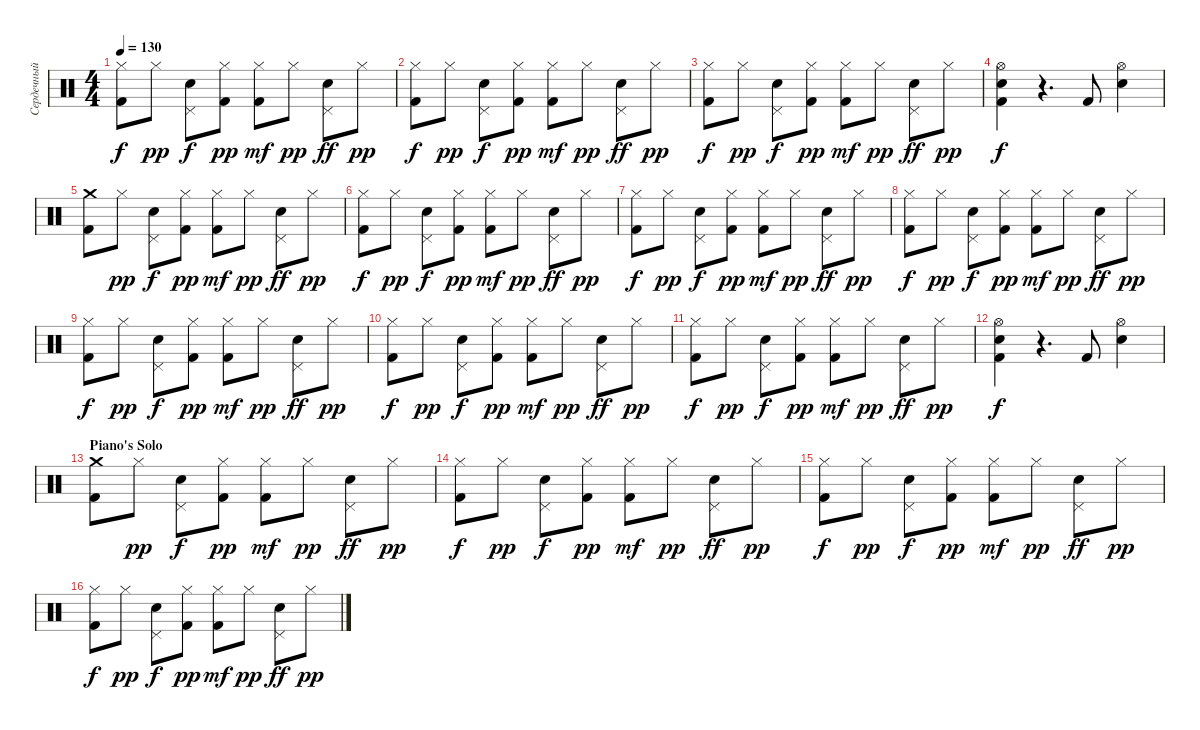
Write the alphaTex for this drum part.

\track ("Сердечный (Ударные)" "Сердечный ") {instrument percussion}
\staff {score}
\articulation defaults
\ts (4 4)
\tempo 130
\clef neutral
\ks c
("Hi-Hat (closed)" "Kick (hit) 2").8{dy f} "Hi-Hat (closed)".8{dy pp} ("Pedal Hi-Hat (hit)" "Electric Snare (hit)").8{dy f} ("Hi-Hat (closed)" "Kick (hit) 2").8{dy pp} ("Hi-Hat (closed)" "Kick (hit) 2").8{dy mf} "Hi-Hat (closed)".8{dy pp} ("Pedal Hi-Hat (hit)" "Electric Snare (hit)").8{dy ff} "Hi-Hat (closed)".8{dy pp} |
("Hi-Hat (closed)" "Kick (hit) 2").8{dy f} "Hi-Hat (closed)".8{dy pp} ("Pedal Hi-Hat (hit)" "Electric Snare (hit)").8{dy f} ("Hi-Hat (closed)" "Kick (hit) 2").8{dy pp} ("Hi-Hat (closed)" "Kick (hit) 2").8{dy mf} "Hi-Hat (closed)".8{dy pp} ("Pedal Hi-Hat (hit)" "Electric Snare (hit)").8{dy ff} "Hi-Hat (closed)".8{dy pp} |
("Hi-Hat (closed)" "Kick (hit) 2").8{dy f} "Hi-Hat (closed)".8{dy pp} ("Pedal Hi-Hat (hit)" "Electric Snare (hit)").8{dy f} ("Hi-Hat (closed)" "Kick (hit) 2").8{dy pp} ("Hi-Hat (closed)" "Kick (hit) 2").8{dy mf} "Hi-Hat (closed)".8{dy pp} ("Pedal Hi-Hat (hit)" "Electric Snare (hit)").8{dy ff} "Hi-Hat (closed)".8{dy pp} |
("Kick (hit) 2" "Electric Snare (hit)" "Hi-Hat (open)").4{dy f} r.4{d} "Kick (hit) 2".8 ("Hi-Hat (open)" "Electric Snare (hit)").4 |
("Kick (hit) 2" "Crash medium (hit)").8 "Hi-Hat (closed)".8{dy pp} ("Pedal Hi-Hat (hit)" "Electric Snare (hit)").8{dy f} ("Hi-Hat (closed)" "Kick (hit) 2").8{dy pp} ("Hi-Hat (closed)" "Kick (hit) 2").8{dy mf} "Hi-Hat (closed)".8{dy pp} ("Pedal Hi-Hat (hit)" "Electric Snare (hit)").8{dy ff} "Hi-Hat (closed)".8{dy pp} |
("Hi-Hat (closed)" "Kick (hit) 2").8{dy f} "Hi-Hat (closed)".8{dy pp} ("Pedal Hi-Hat (hit)" "Electric Snare (hit)").8{dy f} ("Hi-Hat (closed)" "Kick (hit) 2").8{dy pp} ("Hi-Hat (closed)" "Kick (hit) 2").8{dy mf} "Hi-Hat (closed)".8{dy pp} ("Pedal Hi-Hat (hit)" "Electric Snare (hit)").8{dy ff} "Hi-Hat (closed)".8{dy pp} |
("Hi-Hat (closed)" "Kick (hit) 2").8{dy f} "Hi-Hat (closed)".8{dy pp} ("Pedal Hi-Hat (hit)" "Electric Snare (hit)").8{dy f} ("Hi-Hat (closed)" "Kick (hit) 2").8{dy pp} ("Hi-Hat (closed)" "Kick (hit) 2").8{dy mf} "Hi-Hat (closed)".8{dy pp} ("Pedal Hi-Hat (hit)" "Electric Snare (hit)").8{dy ff} "Hi-Hat (closed)".8{dy pp} |
("Hi-Hat (closed)" "Kick (hit) 2").8{dy f} "Hi-Hat (closed)".8{dy pp} ("Pedal Hi-Hat (hit)" "Electric Snare (hit)").8{dy f} ("Hi-Hat (closed)" "Kick (hit) 2").8{dy pp} ("Hi-Hat (closed)" "Kick (hit) 2").8{dy mf} "Hi-Hat (closed)".8{dy pp} ("Pedal Hi-Hat (hit)" "Electric Snare (hit)").8{dy ff} "Hi-Hat (closed)".8{dy pp} |
("Hi-Hat (closed)" "Kick (hit) 2").8{dy f} "Hi-Hat (closed)".8{dy pp} ("Pedal Hi-Hat (hit)" "Electric Snare (hit)").8{dy f} ("Hi-Hat (closed)" "Kick (hit) 2").8{dy pp} ("Hi-Hat (closed)" "Kick (hit) 2").8{dy mf} "Hi-Hat (closed)".8{dy pp} ("Pedal Hi-Hat (hit)" "Electric Snare (hit)").8{dy ff} "Hi-Hat (closed)".8{dy pp} |
("Hi-Hat (closed)" "Kick (hit) 2").8{dy f} "Hi-Hat (closed)".8{dy pp} ("Pedal Hi-Hat (hit)" "Electric Snare (hit)").8{dy f} ("Hi-Hat (closed)" "Kick (hit) 2").8{dy pp} ("Hi-Hat (closed)" "Kick (hit) 2").8{dy mf} "Hi-Hat (closed)".8{dy pp} ("Pedal Hi-Hat (hit)" "Electric Snare (hit)").8{dy ff} "Hi-Hat (closed)".8{dy pp} |
("Hi-Hat (closed)" "Kick (hit) 2").8{dy f} "Hi-Hat (closed)".8{dy pp} ("Pedal Hi-Hat (hit)" "Electric Snare (hit)").8{dy f} ("Hi-Hat (closed)" "Kick (hit) 2").8{dy pp} ("Hi-Hat (closed)" "Kick (hit) 2").8{dy mf} "Hi-Hat (closed)".8{dy pp} ("Pedal Hi-Hat (hit)" "Electric Snare (hit)").8{dy ff} "Hi-Hat (closed)".8{dy pp} |
("Kick (hit) 2" "Electric Snare (hit)" "Hi-Hat (open)").4{dy f} r.4{d} "Kick (hit) 2".8 ("Hi-Hat (open)" "Electric Snare (hit)").4 |
\section ("" "Piano's Solo")
("Kick (hit) 2" "Crash medium (hit)").8 "Hi-Hat (closed)".8{dy pp} ("Pedal Hi-Hat (hit)" "Electric Snare (hit)").8{dy f} ("Hi-Hat (closed)" "Kick (hit) 2").8{dy pp} ("Hi-Hat (closed)" "Kick (hit) 2").8{dy mf} "Hi-Hat (closed)".8{dy pp} ("Pedal Hi-Hat (hit)" "Electric Snare (hit)").8{dy ff} "Hi-Hat (closed)".8{dy pp} |
("Hi-Hat (closed)" "Kick (hit) 2").8{dy f} "Hi-Hat (closed)".8{dy pp} ("Pedal Hi-Hat (hit)" "Electric Snare (hit)").8{dy f} ("Hi-Hat (closed)" "Kick (hit) 2").8{dy pp} ("Hi-Hat (closed)" "Kick (hit) 2").8{dy mf} "Hi-Hat (closed)".8{dy pp} ("Pedal Hi-Hat (hit)" "Electric Snare (hit)").8{dy ff} "Hi-Hat (closed)".8{dy pp} |
("Hi-Hat (closed)" "Kick (hit) 2").8{dy f} "Hi-Hat (closed)".8{dy pp} ("Pedal Hi-Hat (hit)" "Electric Snare (hit)").8{dy f} ("Hi-Hat (closed)" "Kick (hit) 2").8{dy pp} ("Hi-Hat (closed)" "Kick (hit) 2").8{dy mf} "Hi-Hat (closed)".8{dy pp} ("Pedal Hi-Hat (hit)" "Electric Snare (hit)").8{dy ff} "Hi-Hat (closed)".8{dy pp} |
("Hi-Hat (closed)" "Kick (hit) 2").8{dy f} "Hi-Hat (closed)".8{dy pp} ("Pedal Hi-Hat (hit)" "Electric Snare (hit)").8{dy f} ("Hi-Hat (closed)" "Kick (hit) 2").8{dy pp} ("Hi-Hat (closed)" "Kick (hit) 2").8{dy mf} "Hi-Hat (closed)".8{dy pp} ("Pedal Hi-Hat (hit)" "Electric Snare (hit)").8{dy ff} "Hi-Hat (closed)".8{dy pp}
